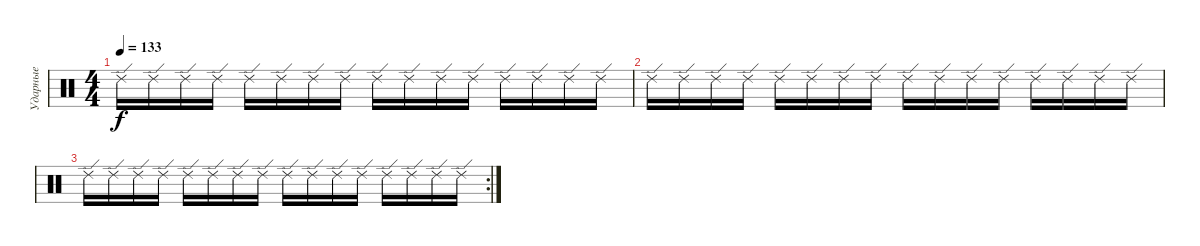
\track ("Ударные" "Ударные") {instrument percussion}
\staff {score}
\articulation defaults
\ts (4 4)
\tempo 133
\clef neutral
\ks c "Ride (edge) 2".16{dy f} "Ride (edge) 2".16 "Ride (edge) 2".16 "Ride (edge) 2".16 "Ride (edge) 2".16 "Ride (edge) 2".16 "Ride (edge) 2".16 "Ride (edge) 2".16 "Ride (edge) 2".16 "Ride (edge) 2".16 "Ride (edge) 2".16 "Ride (edge) 2".16 "Ride (edge) 2".16 "Ride (edge) 2".16 "Ride (edge) 2".16 "Ride (edge) 2".16
|
"Ride (edge) 2".16 "Ride (edge) 2".16 "Ride (edge) 2".16 "Ride (edge) 2".16 "Ride (edge) 2".16 "Ride (edge) 2".16 "Ride (edge) 2".16 "Ride (edge) 2".16 "Ride (edge) 2".16 "Ride (edge) 2".16 "Ride (edge) 2".16 "Ride (edge) 2".16 "Ride (edge) 2".16 "Ride (edge) 2".16 "Ride (edge) 2".16 "Ride (edge) 2".16 |
\rc 2 "Ride (edge) 2".16 "Ride (edge) 2".16 "Ride (edge) 2".16 "Ride (edge) 2".16 "Ride (edge) 2".16 "Ride (edge) 2".16 "Ride (edge) 2".16 "Ride (edge) 2".16 "Ride (edge) 2".16 "Ride (edge) 2".16 "Ride (edge) 2".16 "Ride (edge) 2".16 "Ride (edge) 2".16 "Ride (edge) 2".16 "Ride (edge) 2".16 "Ride (edge) 2".16
